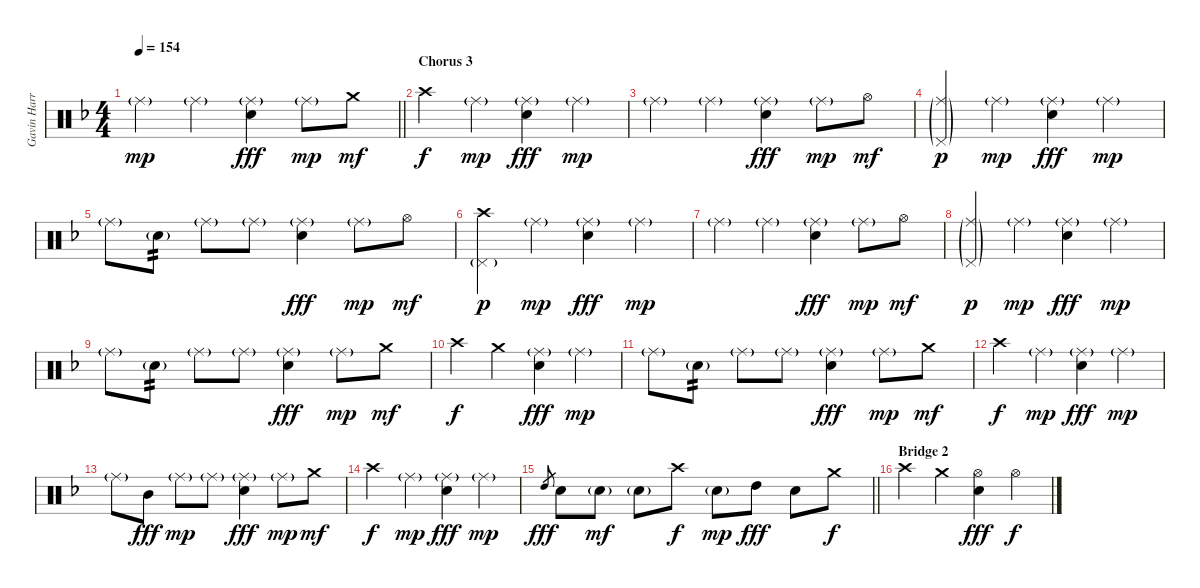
\track ("Gavin Harrison Drums" "Gavin Harr") {instrument percussion}
\staff {score}
\articulation defaults
\ts (4 4)
\tempo 154
\clef neutral
\barLineRight lightlight
\ks dminor "Ride (middle)"{g}.4{dy mp} "Ride (middle)"{g}.4
("Ride (middle)"{g} "Electric Snare (hit)").4{dy fff} "Ride (middle)"{g}.8{dy mp} "Crash medium (hit)".8{dy mf} |
\section ("" "Chorus 3")
"Crash high (hit)".4{dy f} "Ride (middle)"{g}.4{dy mp} ("Ride (middle)"{g} "Electric Snare (hit)").4{dy fff} "Ride (middle)"{g}.4{dy mp} |
"Ride (middle)"{g}.4 "Ride (middle)"{g}.4 ("Ride (middle)"{g} "Electric Snare (hit)").4{dy fff} "Ride (middle)"{g}.8{dy mp} "Hi-Hat (open)".8{dy mf} |
("Ride (middle)"{g} "Pedal Hi-Hat (hit)"{g}).4{dy p} "Ride (middle)"{g}.4{dy mp} ("Ride (middle)"{g} "Electric Snare (hit)").4{dy fff} "Ride (middle)"{g}.4{dy mp} |
"Ride (middle)"{g}.8 "Electric Snare (hit)"{g}.8{tp 2} "Ride (middle)"{g}.8 "Ride (middle)"{g}.8 ("Ride (middle)"{g} "Electric Snare (hit)").4{dy fff} "Ride (middle)"{g}.8{dy mp} "Hi-Hat (open)".8{dy mf} |
("Crash high (hit)" "Pedal Hi-Hat (hit)"{g}).4{dy p} "Ride (middle)"{g}.4{dy mp} ("Ride (middle)"{g} "Electric Snare (hit)").4{dy fff} "Ride (middle)"{g}.4{dy mp} |
"Ride (middle)"{g}.4 "Ride (middle)"{g}.4 ("Ride (middle)"{g} "Electric Snare (hit)").4{dy fff} "Ride (middle)"{g}.8{dy mp} "Hi-Hat (open)".8{dy mf} |
("Ride (middle)"{g} "Pedal Hi-Hat (hit)"{g}).4{dy p} "Ride (middle)"{g}.4{dy mp} ("Ride (middle)"{g} "Electric Snare (hit)").4{dy fff} "Ride (middle)"{g}.4{dy mp} |
"Ride (middle)"{g}.8 "Electric Snare (hit)"{g}.8{tp 2} "Ride (middle)"{g}.8 "Ride (middle)"{g}.8 ("Ride (middle)"{g} "Electric Snare (hit)").4{dy fff} "Ride (middle)"{g}.8{dy mp} "Crash medium (hit)".8{dy mf} |
"Crash high (hit)".4{dy f} "Crash medium (hit)".4 ("Ride (middle)"{g} "Electric Snare (hit)").4{dy fff} "Ride (middle)"{g}.4{dy mp} |
"Ride (middle)"{g}.8 "Electric Snare (hit)"{g}.8{tp 2} "Ride (middle)"{g}.8 "Ride (middle)"{g}.8 ("Ride (middle)"{g} "Electric Snare (hit)").4{dy fff} "Ride (middle)"{g}.8{dy mp} "Crash medium (hit)".8{dy mf} |
"Crash high (hit)".4{dy f} "Ride (middle)"{g}.4{dy mp} ("Ride (middle)"{g} "Electric Snare (hit)").4{dy fff} "Ride (middle)"{g}.4{dy mp} |
"Ride (middle)"{g}.8 "Mid Tom (hit)".8{dy fff} "Ride (middle)"{g}.8{dy mp} "Ride (middle)"{g}.8 ("Ride (middle)"{g} "Electric Snare (hit)").4{dy fff} "Ride (middle)"{g}.8{dy mp} "Crash medium (hit)".8{dy mf} |
"Crash high (hit)".4{dy f} "Ride (middle)"{g}.4{dy mp} ("Ride (middle)"{g} "Electric Snare (hit)").4{dy fff} "Ride (middle)"{g}.4{dy mp} |
\barLineRight lightlight "High Tom (hit)".8{gr dy fff} "Electric Snare (hit)".8 "Electric Snare (hit)"{g}.8{dy mf} "Electric Snare (hit)"{g}.8 "Crash high (hit)".8{dy f} "Electric Snare (hit)"{g}.8{dy mp} "High Tom (hit)".8{dy fff} "Electric Snare (hit)".8 "Crash medium (hit)".8{dy f}
|
\section ("" "Bridge 2")
"Crash high (hit)".4 "Crash medium (hit)".4 ("Hi-Hat (open)" "Electric Snare (hit)").4{dy fff} "Hi-Hat (open)".4{dy f}
